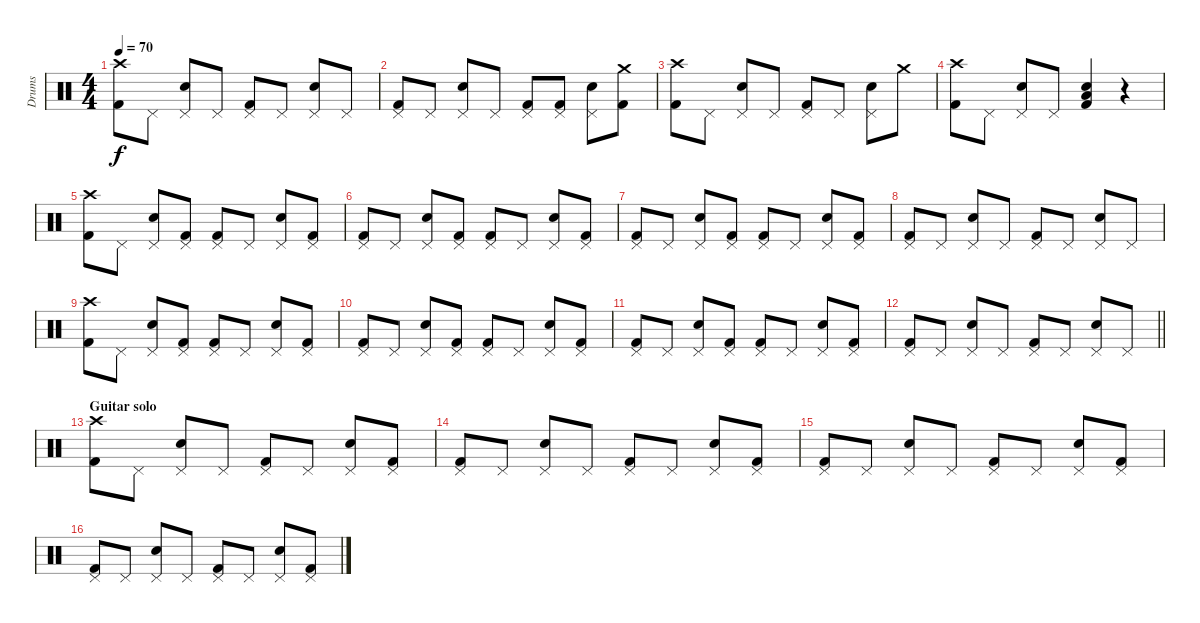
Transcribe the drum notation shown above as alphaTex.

\track ("Drums" "Drums") {instrument percussion}
\staff {score}
\articulation defaults
\ts (4 4)
\tempo 70
\clef neutral
\ks c
("Crash high (hit)" "Kick (hit) 2").8{dy f} "Pedal Hi-Hat (hit)".8 ("Pedal Hi-Hat (hit)" "Snare (hit) 2").8 "Pedal Hi-Hat (hit)".8 ("Pedal Hi-Hat (hit)" "Kick (hit) 2").8 "Pedal Hi-Hat (hit)".8 ("Pedal Hi-Hat (hit)" "Snare (hit) 2").8 "Pedal Hi-Hat (hit)".8 |
("Pedal Hi-Hat (hit)" "Kick (hit) 2").8 "Pedal Hi-Hat (hit)".8 ("Pedal Hi-Hat (hit)" "Snare (hit) 2").8 "Pedal Hi-Hat (hit)".8 ("Pedal Hi-Hat (hit)" "Kick (hit) 2").8 ("Pedal Hi-Hat (hit)" "Kick (hit) 2").8 ("Pedal Hi-Hat (hit)" "Snare (hit) 2").8 ("Crash medium (hit)" "Kick (hit) 2").8 |
("Crash high (hit)" "Kick (hit) 2").8 "Pedal Hi-Hat (hit)".8 ("Pedal Hi-Hat (hit)" "Snare (hit) 2").8 "Pedal Hi-Hat (hit)".8 ("Pedal Hi-Hat (hit)" "Kick (hit) 2").8 "Pedal Hi-Hat (hit)".8 ("Pedal Hi-Hat (hit)" "Snare (hit) 2").8 "Crash medium (hit)".8 |
("Crash high (hit)" "Kick (hit) 2").8 "Pedal Hi-Hat (hit)".8 ("Pedal Hi-Hat (hit)" "Snare (hit) 2").8 "Pedal Hi-Hat (hit)".8 ("Snare (hit) 2" "Low Floor Tom (hit)" "Kick (hit) 2").4 r.4 |
("Crash high (hit)" "Kick (hit) 2").8 "Pedal Hi-Hat (hit)".8 ("Pedal Hi-Hat (hit)" "Snare (hit) 2").8 ("Pedal Hi-Hat (hit)" "Kick (hit) 2").8 ("Pedal Hi-Hat (hit)" "Kick (hit) 2").8 "Pedal Hi-Hat (hit)".8 ("Pedal Hi-Hat (hit)" "Snare (hit) 2").8 ("Pedal Hi-Hat (hit)" "Kick (hit) 2").8 |
("Pedal Hi-Hat (hit)" "Kick (hit) 2").8 "Pedal Hi-Hat (hit)".8 ("Pedal Hi-Hat (hit)" "Snare (hit) 2").8 ("Pedal Hi-Hat (hit)" "Kick (hit) 2").8 ("Pedal Hi-Hat (hit)" "Kick (hit) 2").8 "Pedal Hi-Hat (hit)".8 ("Pedal Hi-Hat (hit)" "Snare (hit) 2").8 ("Pedal Hi-Hat (hit)" "Kick (hit) 2").8 |
("Pedal Hi-Hat (hit)" "Kick (hit) 2").8 "Pedal Hi-Hat (hit)".8 ("Pedal Hi-Hat (hit)" "Snare (hit) 2").8 ("Pedal Hi-Hat (hit)" "Kick (hit) 2").8 ("Pedal Hi-Hat (hit)" "Kick (hit) 2").8 "Pedal Hi-Hat (hit)".8 ("Pedal Hi-Hat (hit)" "Snare (hit) 2").8 ("Pedal Hi-Hat (hit)" "Kick (hit) 2").8 |
("Pedal Hi-Hat (hit)" "Kick (hit) 2").8 "Pedal Hi-Hat (hit)".8 ("Pedal Hi-Hat (hit)" "Snare (hit) 2").8 "Pedal Hi-Hat (hit)".8 ("Pedal Hi-Hat (hit)" "Kick (hit) 2").8 "Pedal Hi-Hat (hit)".8 ("Pedal Hi-Hat (hit)" "Snare (hit) 2").8 "Pedal Hi-Hat (hit)".8 |
("Crash high (hit)" "Kick (hit) 2").8 "Pedal Hi-Hat (hit)".8 ("Pedal Hi-Hat (hit)" "Snare (hit) 2").8 ("Pedal Hi-Hat (hit)" "Kick (hit) 2").8 ("Pedal Hi-Hat (hit)" "Kick (hit) 2").8 "Pedal Hi-Hat (hit)".8 ("Pedal Hi-Hat (hit)" "Snare (hit) 2").8 ("Pedal Hi-Hat (hit)" "Kick (hit) 2").8 |
("Pedal Hi-Hat (hit)" "Kick (hit) 2").8 "Pedal Hi-Hat (hit)".8 ("Pedal Hi-Hat (hit)" "Snare (hit) 2").8 ("Pedal Hi-Hat (hit)" "Kick (hit) 2").8 ("Pedal Hi-Hat (hit)" "Kick (hit) 2").8 "Pedal Hi-Hat (hit)".8 ("Pedal Hi-Hat (hit)" "Snare (hit) 2").8 ("Pedal Hi-Hat (hit)" "Kick (hit) 2").8 |
("Pedal Hi-Hat (hit)" "Kick (hit) 2").8 "Pedal Hi-Hat (hit)".8 ("Pedal Hi-Hat (hit)" "Snare (hit) 2").8 ("Pedal Hi-Hat (hit)" "Kick (hit) 2").8 ("Pedal Hi-Hat (hit)" "Kick (hit) 2").8 "Pedal Hi-Hat (hit)".8 ("Pedal Hi-Hat (hit)" "Snare (hit) 2").8 ("Pedal Hi-Hat (hit)" "Kick (hit) 2").8 |
\barLineRight lightlight
("Pedal Hi-Hat (hit)" "Kick (hit) 2").8 "Pedal Hi-Hat (hit)".8 ("Pedal Hi-Hat (hit)" "Snare (hit) 2").8 "Pedal Hi-Hat (hit)".8 ("Pedal Hi-Hat (hit)" "Kick (hit) 2").8 "Pedal Hi-Hat (hit)".8 ("Pedal Hi-Hat (hit)" "Snare (hit) 2").8 "Pedal Hi-Hat (hit)".8 |
\section ("" "Guitar solo")
("Crash high (hit)" "Kick (hit) 2").8 "Pedal Hi-Hat (hit)".8 ("Pedal Hi-Hat (hit)" "Snare (hit) 2").8 "Pedal Hi-Hat (hit)".8 ("Pedal Hi-Hat (hit)" "Kick (hit) 2").8 "Pedal Hi-Hat (hit)".8 ("Pedal Hi-Hat (hit)" "Snare (hit) 2").8 ("Pedal Hi-Hat (hit)" "Kick (hit) 2").8 |
("Pedal Hi-Hat (hit)" "Kick (hit) 2").8 "Pedal Hi-Hat (hit)".8 ("Pedal Hi-Hat (hit)" "Snare (hit) 2").8 "Pedal Hi-Hat (hit)".8 ("Pedal Hi-Hat (hit)" "Kick (hit) 2").8 "Pedal Hi-Hat (hit)".8 ("Pedal Hi-Hat (hit)" "Snare (hit) 2").8 ("Pedal Hi-Hat (hit)" "Kick (hit) 2").8 |
("Pedal Hi-Hat (hit)" "Kick (hit) 2").8 "Pedal Hi-Hat (hit)".8 ("Pedal Hi-Hat (hit)" "Snare (hit) 2").8 "Pedal Hi-Hat (hit)".8 ("Pedal Hi-Hat (hit)" "Kick (hit) 2").8 "Pedal Hi-Hat (hit)".8 ("Pedal Hi-Hat (hit)" "Snare (hit) 2").8 ("Pedal Hi-Hat (hit)" "Kick (hit) 2").8 |
("Pedal Hi-Hat (hit)" "Kick (hit) 2").8 "Pedal Hi-Hat (hit)".8 ("Pedal Hi-Hat (hit)" "Snare (hit) 2").8 "Pedal Hi-Hat (hit)".8 ("Pedal Hi-Hat (hit)" "Kick (hit) 2").8 "Pedal Hi-Hat (hit)".8 ("Pedal Hi-Hat (hit)" "Snare (hit) 2").8 ("Pedal Hi-Hat (hit)" "Kick (hit) 2").8
